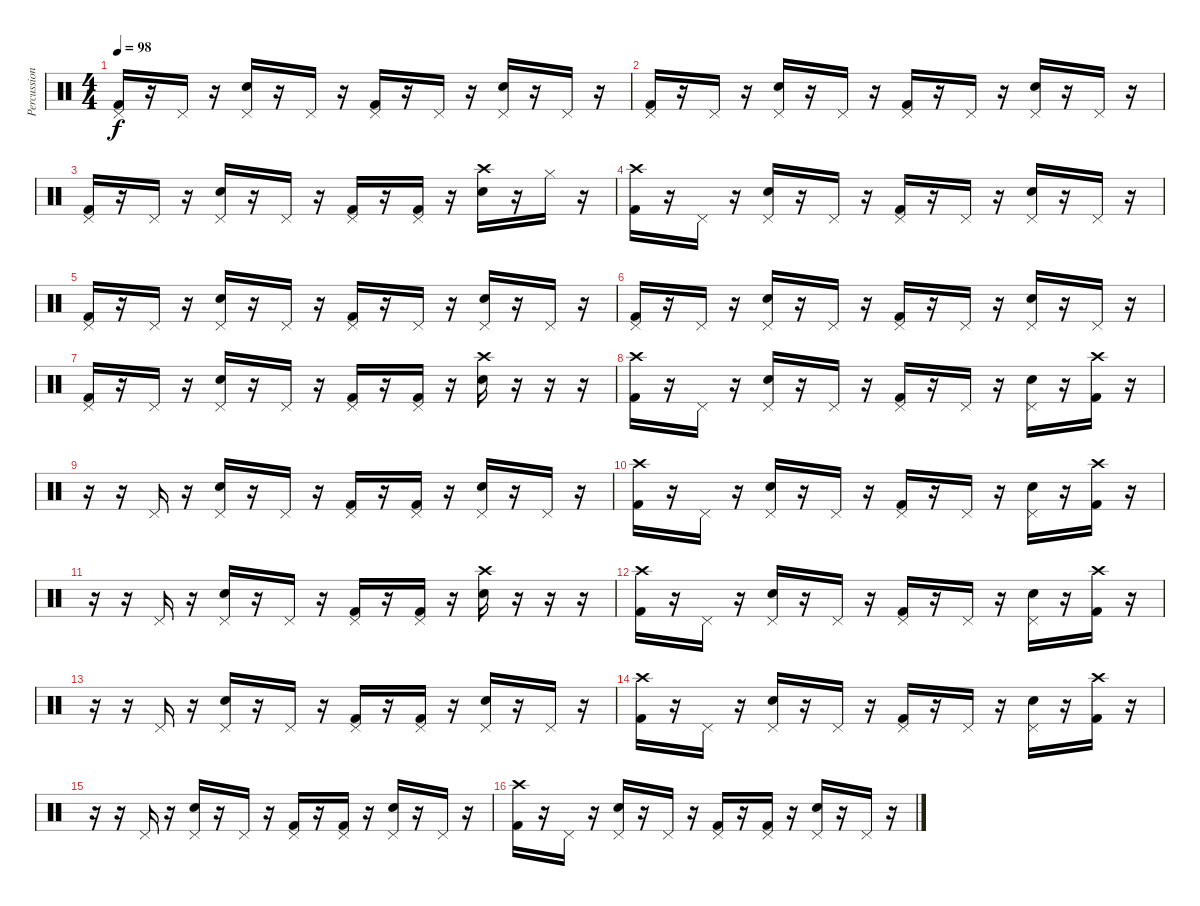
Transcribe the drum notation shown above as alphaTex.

\track ("Percussion" "Percussion") {instrument percussion}
\staff {score}
\articulation defaults
\ts (4 4)
\tempo 98
\clef neutral
\ks c
("Pedal Hi-Hat (hit)" "Kick (hit) 2").16{dy f} r.16 "Pedal Hi-Hat (hit)".16 r.16 ("Pedal Hi-Hat (hit)" "Snare (hit) 2").16 r.16 "Pedal Hi-Hat (hit)".16 r.16 ("Pedal Hi-Hat (hit)" "Kick (hit) 2").16 r.16 "Pedal Hi-Hat (hit)".16 r.16 ("Pedal Hi-Hat (hit)" "Snare (hit) 2").16 r.16 "Pedal Hi-Hat (hit)".16 r.16 |
("Pedal Hi-Hat (hit)" "Kick (hit) 2").16 r.16 "Pedal Hi-Hat (hit)".16 r.16 ("Pedal Hi-Hat (hit)" "Snare (hit) 2").16 r.16 "Pedal Hi-Hat (hit)".16 r.16 ("Pedal Hi-Hat (hit)" "Kick (hit) 2").16 r.16 "Pedal Hi-Hat (hit)".16 r.16 ("Pedal Hi-Hat (hit)" "Snare (hit) 2").16 r.16 "Pedal Hi-Hat (hit)".16 r.16 |
("Pedal Hi-Hat (hit)" "Kick (hit) 2").16 r.16 "Pedal Hi-Hat (hit)".16 r.16 ("Pedal Hi-Hat (hit)" "Snare (hit) 2").16 r.16 "Pedal Hi-Hat (hit)".16 r.16 ("Pedal Hi-Hat (hit)" "Kick (hit) 2").16 r.16 ("Pedal Hi-Hat (hit)" "Kick (hit) 2").16 r.16 ("Crash high (hit)" "Snare (hit) 2").16 r.16 "Hi-Hat (closed)".16 r.16 |
("Crash high (hit)" "Kick (hit) 2").16 r.16 "Pedal Hi-Hat (hit)".16 r.16 ("Pedal Hi-Hat (hit)" "Snare (hit) 2").16 r.16 "Pedal Hi-Hat (hit)".16 r.16 ("Pedal Hi-Hat (hit)" "Kick (hit) 2").16 r.16 "Pedal Hi-Hat (hit)".16 r.16 ("Pedal Hi-Hat (hit)" "Snare (hit) 2").16 r.16 "Pedal Hi-Hat (hit)".16 r.16 |
("Pedal Hi-Hat (hit)" "Kick (hit) 2").16 r.16 "Pedal Hi-Hat (hit)".16 r.16 ("Pedal Hi-Hat (hit)" "Snare (hit) 2").16 r.16 "Pedal Hi-Hat (hit)".16 r.16 ("Pedal Hi-Hat (hit)" "Kick (hit) 2").16 r.16 "Pedal Hi-Hat (hit)".16 r.16 ("Pedal Hi-Hat (hit)" "Snare (hit) 2").16 r.16 "Pedal Hi-Hat (hit)".16 r.16 |
("Pedal Hi-Hat (hit)" "Kick (hit) 2").16 r.16 "Pedal Hi-Hat (hit)".16 r.16 ("Pedal Hi-Hat (hit)" "Snare (hit) 2").16 r.16 "Pedal Hi-Hat (hit)".16 r.16 ("Pedal Hi-Hat (hit)" "Kick (hit) 2").16 r.16 "Pedal Hi-Hat (hit)".16 r.16 ("Pedal Hi-Hat (hit)" "Snare (hit) 2").16 r.16 "Pedal Hi-Hat (hit)".16 r.16 |
("Pedal Hi-Hat (hit)" "Kick (hit) 2").16 r.16 "Pedal Hi-Hat (hit)".16 r.16 ("Pedal Hi-Hat (hit)" "Snare (hit) 2").16 r.16 "Pedal Hi-Hat (hit)".16 r.16 ("Pedal Hi-Hat (hit)" "Kick (hit) 2").16 r.16 ("Pedal Hi-Hat (hit)" "Kick (hit) 2").16 r.16 ("Crash high (hit)" "Snare (hit) 2").16 r.16 r.16 r.16 |
("Crash high (hit)" "Kick (hit) 2").16 r.16 "Pedal Hi-Hat (hit)".16 r.16 ("Pedal Hi-Hat (hit)" "Snare (hit) 2").16 r.16 "Pedal Hi-Hat (hit)".16 r.16 ("Pedal Hi-Hat (hit)" "Kick (hit) 2").16 r.16 "Pedal Hi-Hat (hit)".16 r.16 ("Pedal Hi-Hat (hit)" "Snare (hit) 2").16 r.16 ("Crash high (hit)" "Kick (hit) 2").16 r.16 |
r.16 r.16 "Pedal Hi-Hat (hit)".16 r.16 ("Pedal Hi-Hat (hit)" "Snare (hit) 2").16 r.16 "Pedal Hi-Hat (hit)".16 r.16 ("Pedal Hi-Hat (hit)" "Kick (hit) 2").16 r.16 ("Pedal Hi-Hat (hit)" "Kick (hit) 2").16 r.16 ("Pedal Hi-Hat (hit)" "Snare (hit) 2").16 r.16 "Pedal Hi-Hat (hit)".16 r.16 |
("Crash high (hit)" "Kick (hit) 2").16 r.16 "Pedal Hi-Hat (hit)".16 r.16 ("Pedal Hi-Hat (hit)" "Snare (hit) 2").16 r.16 "Pedal Hi-Hat (hit)".16 r.16 ("Pedal Hi-Hat (hit)" "Kick (hit) 2").16 r.16 "Pedal Hi-Hat (hit)".16 r.16 ("Pedal Hi-Hat (hit)" "Snare (hit) 2").16 r.16 ("Crash high (hit)" "Kick (hit) 2").16 r.16 |
r.16 r.16 "Pedal Hi-Hat (hit)".16 r.16 ("Pedal Hi-Hat (hit)" "Snare (hit) 2").16 r.16 "Pedal Hi-Hat (hit)".16 r.16 ("Pedal Hi-Hat (hit)" "Kick (hit) 2").16 r.16 ("Pedal Hi-Hat (hit)" "Kick (hit) 2").16 r.16 ("Crash high (hit)" "Snare (hit) 2").16 r.16 r.16 r.16 |
("Crash high (hit)" "Kick (hit) 2").16 r.16 "Pedal Hi-Hat (hit)".16 r.16 ("Pedal Hi-Hat (hit)" "Snare (hit) 2").16 r.16 "Pedal Hi-Hat (hit)".16 r.16 ("Pedal Hi-Hat (hit)" "Kick (hit) 2").16 r.16 "Pedal Hi-Hat (hit)".16 r.16 ("Pedal Hi-Hat (hit)" "Snare (hit) 2").16 r.16 ("Crash high (hit)" "Kick (hit) 2").16 r.16 |
r.16 r.16 "Pedal Hi-Hat (hit)".16 r.16 ("Pedal Hi-Hat (hit)" "Snare (hit) 2").16 r.16 "Pedal Hi-Hat (hit)".16 r.16 ("Pedal Hi-Hat (hit)" "Kick (hit) 2").16 r.16 ("Pedal Hi-Hat (hit)" "Kick (hit) 2").16 r.16 ("Pedal Hi-Hat (hit)" "Snare (hit) 2").16 r.16 "Pedal Hi-Hat (hit)".16 r.16 |
("Crash high (hit)" "Kick (hit) 2").16 r.16 "Pedal Hi-Hat (hit)".16 r.16 ("Pedal Hi-Hat (hit)" "Snare (hit) 2").16 r.16 "Pedal Hi-Hat (hit)".16 r.16 ("Pedal Hi-Hat (hit)" "Kick (hit) 2").16 r.16 "Pedal Hi-Hat (hit)".16 r.16 ("Pedal Hi-Hat (hit)" "Snare (hit) 2").16 r.16 ("Crash high (hit)" "Kick (hit) 2").16 r.16 |
r.16 r.16 "Pedal Hi-Hat (hit)".16 r.16 ("Pedal Hi-Hat (hit)" "Snare (hit) 2").16 r.16 "Pedal Hi-Hat (hit)".16 r.16 ("Pedal Hi-Hat (hit)" "Kick (hit) 2").16 r.16 ("Pedal Hi-Hat (hit)" "Kick (hit) 2").16 r.16 ("Pedal Hi-Hat (hit)" "Snare (hit) 2").16 r.16 "Pedal Hi-Hat (hit)".16 r.16 |
("Crash high (hit)" "Kick (hit) 2").16 r.16 "Pedal Hi-Hat (hit)".16 r.16 ("Pedal Hi-Hat (hit)" "Snare (hit) 2").16 r.16 "Pedal Hi-Hat (hit)".16 r.16 ("Pedal Hi-Hat (hit)" "Kick (hit) 2").16 r.16 ("Pedal Hi-Hat (hit)" "Kick (hit) 2").16 r.16 ("Pedal Hi-Hat (hit)" "Snare (hit) 2").16 r.16 "Pedal Hi-Hat (hit)".16 r.16
